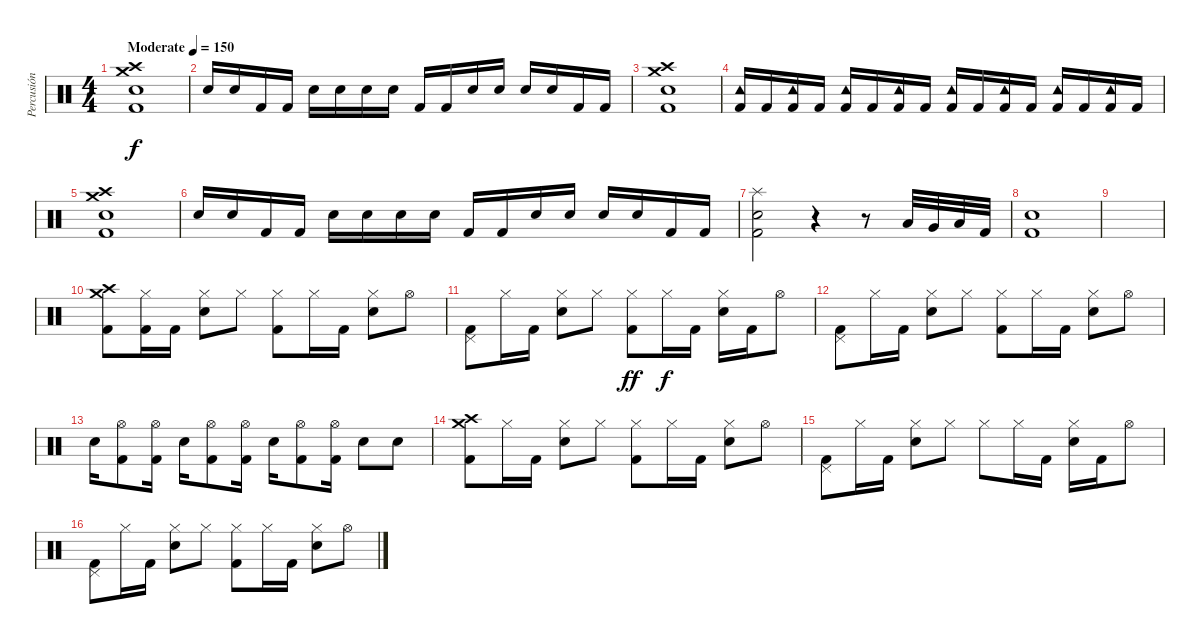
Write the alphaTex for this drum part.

\track ("Percusión" "Percusión") {instrument percussion}
\staff {score}
\articulation defaults
\ts (4 4)
\tempo (150 "Moderate")
\clef neutral
\ks c
("Crash high (hit)" "Crash medium (hit)" "Electric Snare (hit)" "Kick (hit) 2").1{dy f} |
"Electric Snare (hit)".16 "Electric Snare (hit)".16 "Kick (hit) 2".16 "Kick (hit) 2".16 "Electric Snare (hit)".16 "Electric Snare (hit)".16 "Electric Snare (hit)".16 "Electric Snare (hit)".16 "Kick (hit) 2".16 "Kick (hit) 2".16 "Electric Snare (hit)".16 "Electric Snare (hit)".16 "Electric Snare (hit)".16 "Electric Snare (hit)".16 "Kick (hit) 2".16 "Kick (hit) 2".16 |
("Crash high (hit)" "Crash medium (hit)" "Electric Snare (hit)" "Kick (hit) 2").1 |
("Tambourine (hit)" "Kick (hit) 2").16 "Kick (hit) 2".16 ("Tambourine (hit)" "Kick (hit) 2").16 "Kick (hit) 2".16 ("Tambourine (hit)" "Kick (hit) 2").16 "Kick (hit) 2".16 ("Tambourine (hit)" "Kick (hit) 2").16 "Kick (hit) 2".16 ("Tambourine (hit)" "Kick (hit) 2").16 "Kick (hit) 2".16 ("Tambourine (hit)" "Kick (hit) 2").16 "Kick (hit) 2".16 ("Tambourine (hit)" "Kick (hit) 2").16 "Kick (hit) 2".16 ("Tambourine (hit)" "Kick (hit) 2").16 "Kick (hit) 2".16 |
("Crash high (hit)" "Crash medium (hit)" "Electric Snare (hit)" "Kick (hit) 2").1 |
"Electric Snare (hit)".16 "Electric Snare (hit)".16 "Kick (hit) 2".16 "Kick (hit) 2".16 "Electric Snare (hit)".16 "Electric Snare (hit)".16 "Electric Snare (hit)".16 "Electric Snare (hit)".16 "Kick (hit) 2".16 "Kick (hit) 2".16 "Electric Snare (hit)".16 "Electric Snare (hit)".16 "Electric Snare (hit)".16 "Electric Snare (hit)".16 "Kick (hit) 2".16 "Kick (hit) 2".16 |
("Splash (hit)" "Electric Snare (hit)" "Kick (hit) 2").2 r.4 r.8 "Low Tom (hit)".32 "Very Low Tom (hit)".32 "Low Floor Tom (hit)".32 "Kick (hit) 2".32 |
("Electric Snare (hit)" "Kick (hit) 2").1 |
|
("Crash high (hit)" "Crash medium (hit)" "Kick (hit) 2").8 ("Hi-Hat (closed)" "Kick (hit) 2").16 "Kick (hit) 2".16 ("Hi-Hat (closed)" "Electric Snare (hit)").8 "Hi-Hat (closed)".8 ("Hi-Hat (closed)" "Kick (hit) 2").8 "Hi-Hat (closed)".16 "Kick (hit) 2".16 ("Hi-Hat (closed)" "Electric Snare (hit)").8 "Hi-Hat (open)".8 |
("Pedal Hi-Hat (hit)" "Kick (hit) 2").8 "Hi-Hat (closed)".16 "Kick (hit) 2".16 ("Hi-Hat (closed)" "Electric Snare (hit)").8 "Hi-Hat (closed)".8 ("Hi-Hat (closed)" "Kick (hit) 2").8{dy ff} "Hi-Hat (closed)".16{dy f} "Kick (hit) 2".16 ("Hi-Hat (closed)" "Electric Snare (hit)").16 "Kick (hit) 2".16 "Hi-Hat (open)".8 |
("Pedal Hi-Hat (hit)" "Kick (hit) 2").8 "Hi-Hat (closed)".16 "Kick (hit) 2".16 ("Hi-Hat (closed)" "Electric Snare (hit)").8 "Hi-Hat (closed)".8 ("Hi-Hat (closed)" "Kick (hit) 2").8 "Hi-Hat (closed)".16 "Kick (hit) 2".16 ("Hi-Hat (closed)" "Electric Snare (hit)").8 "Hi-Hat (open)".8 |
"Electric Snare (hit)".16 ("Hi-Hat (open)" "Kick (hit) 2").8 ("Hi-Hat (open)" "Kick (hit) 2").16 "Electric Snare (hit)".16 ("Hi-Hat (open)" "Kick (hit) 2").8 ("Hi-Hat (open)" "Kick (hit) 2").16 "Electric Snare (hit)".16 ("Hi-Hat (open)" "Kick (hit) 2").8 ("Hi-Hat (open)" "Kick (hit) 2").16 "Electric Snare (hit)".8 "Electric Snare (hit)".8 |
("Crash high (hit)" "Crash medium (hit)" "Kick (hit) 2").8 "Hi-Hat (closed)".16 "Kick (hit) 2".16 ("Hi-Hat (closed)" "Electric Snare (hit)").8 "Hi-Hat (closed)".8 ("Hi-Hat (closed)" "Kick (hit) 2").8 "Hi-Hat (closed)".16 "Kick (hit) 2".16 ("Hi-Hat (closed)" "Electric Snare (hit)").8 "Hi-Hat (open)".8 |
("Pedal Hi-Hat (hit)" "Kick (hit) 2").8 "Hi-Hat (closed)".16 "Kick (hit) 2".16 ("Hi-Hat (closed)" "Electric Snare (hit)").8 "Hi-Hat (closed)".8 "Hi-Hat (closed)".8 "Hi-Hat (closed)".16 "Kick (hit) 2".16 ("Hi-Hat (closed)" "Electric Snare (hit)").16 "Kick (hit) 2".16 "Hi-Hat (open)".8 |
("Pedal Hi-Hat (hit)" "Kick (hit) 2").8 "Hi-Hat (closed)".16 "Kick (hit) 2".16 ("Hi-Hat (closed)" "Electric Snare (hit)").8 "Hi-Hat (closed)".8 ("Hi-Hat (closed)" "Kick (hit) 2").8 "Hi-Hat (closed)".16 "Kick (hit) 2".16 ("Hi-Hat (closed)" "Electric Snare (hit)").8 "Hi-Hat (open)".8
